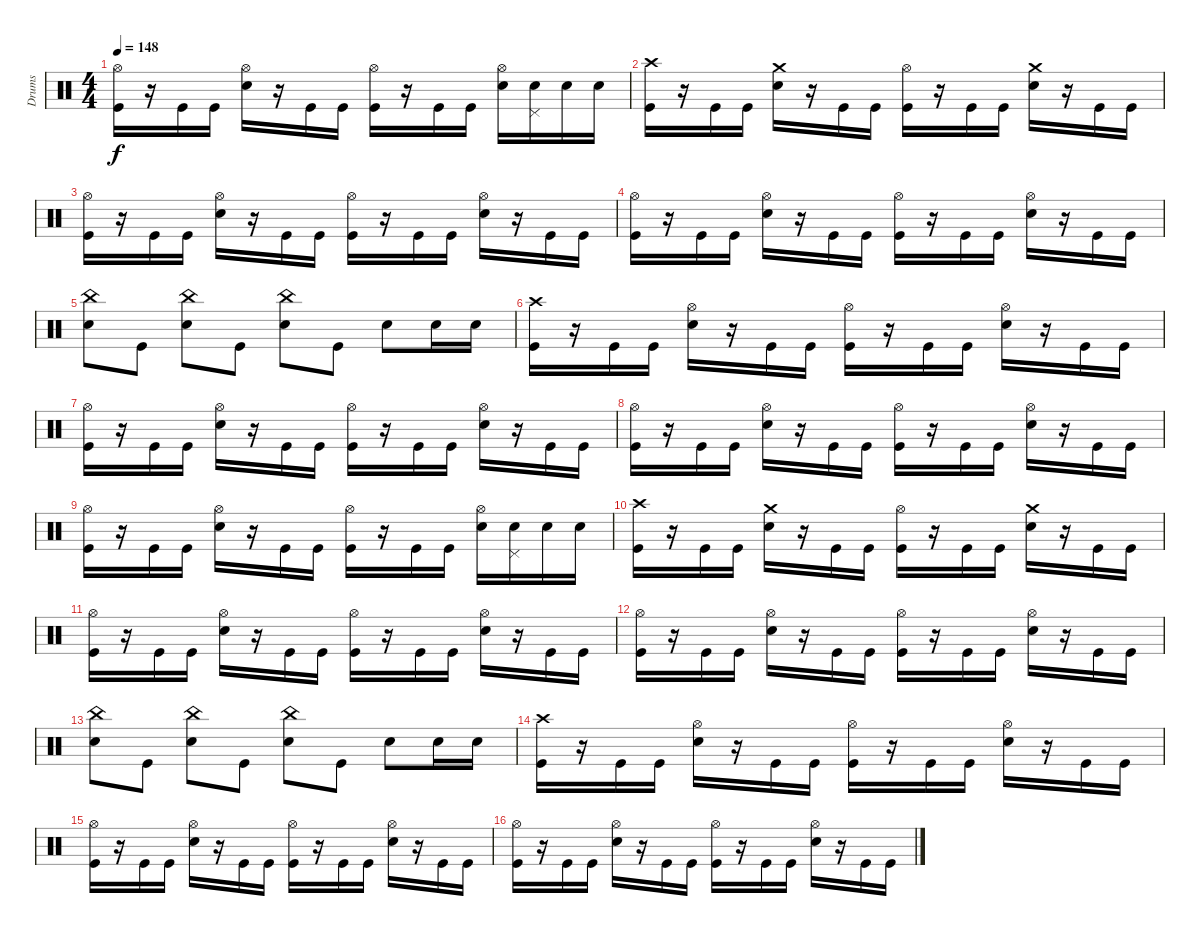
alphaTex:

\track ("Drums" "Drums") {instrument percussion}
\staff {score}
\articulation defaults
\ts (4 4)
\tempo 148
\clef neutral
\ks c
("Hi-Hat (open)" "Kick (hit)").16{dy f} r.16 "Kick (hit)".16 "Kick (hit)".16 ("Hi-Hat (open)" "Electric Snare (hit)").16 r.16 "Kick (hit)".16 "Kick (hit)".16 ("Hi-Hat (open)" "Kick (hit)").16 r.16 "Kick (hit)".16 "Kick (hit)".16 ("Hi-Hat (open)" "Electric Snare (hit)").16 ("Pedal Hi-Hat (hit)" "Electric Snare (hit)").16 "Electric Snare (hit)".16 "Electric Snare (hit)".16 |
("Crash high (hit)" "Kick (hit)").16 r.16 "Kick (hit)".16 "Kick (hit)".16 ("Crash medium (hit)" "Electric Snare (hit)").16 r.16 "Kick (hit)".16 "Kick (hit)".16 ("Hi-Hat (open)" "Kick (hit)").16 r.16 "Kick (hit)".16 "Kick (hit)".16 ("Crash medium (hit)" "Electric Snare (hit)").16 r.16 "Kick (hit)".16 "Kick (hit)".16 |
("Hi-Hat (open)" "Kick (hit)").16 r.16 "Kick (hit)".16 "Kick (hit)".16 ("Hi-Hat (open)" "Electric Snare (hit)").16 r.16 "Kick (hit)".16 "Kick (hit)".16 ("Hi-Hat (open)" "Kick (hit)").16 r.16 "Kick (hit)".16 "Kick (hit)".16 ("Hi-Hat (open)" "Electric Snare (hit)").16 r.16 "Kick (hit)".16 "Kick (hit)".16 |
("Hi-Hat (open)" "Kick (hit)").16 r.16 "Kick (hit)".16 "Kick (hit)".16 ("Hi-Hat (open)" "Electric Snare (hit)").16 r.16 "Kick (hit)".16 "Kick (hit)".16 ("Hi-Hat (open)" "Kick (hit)").16 r.16 "Kick (hit)".16 "Kick (hit)".16 ("Hi-Hat (open)" "Electric Snare (hit)").16 r.16 "Kick (hit)".16 "Kick (hit)".16 |
("China (hit)" "Electric Snare (hit)").8 "Kick (hit)".8 ("China (hit)" "Electric Snare (hit)").8 "Kick (hit)".8 ("China (hit)" "Electric Snare (hit)").8 "Kick (hit)".8 "Electric Snare (hit)".8 "Electric Snare (hit)".16 "Electric Snare (hit)".16 |
("Crash high (hit)" "Kick (hit)").16 r.16 "Kick (hit)".16 "Kick (hit)".16 ("Hi-Hat (open)" "Electric Snare (hit)").16 r.16 "Kick (hit)".16 "Kick (hit)".16 ("Hi-Hat (open)" "Kick (hit)").16 r.16 "Kick (hit)".16 "Kick (hit)".16 ("Hi-Hat (open)" "Electric Snare (hit)").16 r.16 "Kick (hit)".16 "Kick (hit)".16 |
("Hi-Hat (open)" "Kick (hit)").16 r.16 "Kick (hit)".16 "Kick (hit)".16 ("Hi-Hat (open)" "Electric Snare (hit)").16 r.16 "Kick (hit)".16 "Kick (hit)".16 ("Hi-Hat (open)" "Kick (hit)").16 r.16 "Kick (hit)".16 "Kick (hit)".16 ("Hi-Hat (open)" "Electric Snare (hit)").16 r.16 "Kick (hit)".16 "Kick (hit)".16 |
("Hi-Hat (open)" "Kick (hit)").16 r.16 "Kick (hit)".16 "Kick (hit)".16 ("Hi-Hat (open)" "Electric Snare (hit)").16 r.16 "Kick (hit)".16 "Kick (hit)".16 ("Hi-Hat (open)" "Kick (hit)").16 r.16 "Kick (hit)".16 "Kick (hit)".16 ("Hi-Hat (open)" "Electric Snare (hit)").16 r.16 "Kick (hit)".16 "Kick (hit)".16 |
("Hi-Hat (open)" "Kick (hit)").16 r.16 "Kick (hit)".16 "Kick (hit)".16 ("Hi-Hat (open)" "Electric Snare (hit)").16 r.16 "Kick (hit)".16 "Kick (hit)".16 ("Hi-Hat (open)" "Kick (hit)").16 r.16 "Kick (hit)".16 "Kick (hit)".16 ("Hi-Hat (open)" "Electric Snare (hit)").16 ("Pedal Hi-Hat (hit)" "Electric Snare (hit)").16 "Electric Snare (hit)".16 "Electric Snare (hit)".16 |
("Crash high (hit)" "Kick (hit)").16 r.16 "Kick (hit)".16 "Kick (hit)".16 ("Crash medium (hit)" "Electric Snare (hit)").16 r.16 "Kick (hit)".16 "Kick (hit)".16 ("Hi-Hat (open)" "Kick (hit)").16 r.16 "Kick (hit)".16 "Kick (hit)".16 ("Crash medium (hit)" "Electric Snare (hit)").16 r.16 "Kick (hit)".16 "Kick (hit)".16 |
("Hi-Hat (open)" "Kick (hit)").16 r.16 "Kick (hit)".16 "Kick (hit)".16 ("Hi-Hat (open)" "Electric Snare (hit)").16 r.16 "Kick (hit)".16 "Kick (hit)".16 ("Hi-Hat (open)" "Kick (hit)").16 r.16 "Kick (hit)".16 "Kick (hit)".16 ("Hi-Hat (open)" "Electric Snare (hit)").16 r.16 "Kick (hit)".16 "Kick (hit)".16 |
("Hi-Hat (open)" "Kick (hit)").16 r.16 "Kick (hit)".16 "Kick (hit)".16 ("Hi-Hat (open)" "Electric Snare (hit)").16 r.16 "Kick (hit)".16 "Kick (hit)".16 ("Hi-Hat (open)" "Kick (hit)").16 r.16 "Kick (hit)".16 "Kick (hit)".16 ("Hi-Hat (open)" "Electric Snare (hit)").16 r.16 "Kick (hit)".16 "Kick (hit)".16 |
("China (hit)" "Electric Snare (hit)").8 "Kick (hit)".8 ("China (hit)" "Electric Snare (hit)").8 "Kick (hit)".8 ("China (hit)" "Electric Snare (hit)").8 "Kick (hit)".8 "Electric Snare (hit)".8 "Electric Snare (hit)".16 "Electric Snare (hit)".16 |
("Crash high (hit)" "Kick (hit)").16 r.16 "Kick (hit)".16 "Kick (hit)".16 ("Hi-Hat (open)" "Electric Snare (hit)").16 r.16 "Kick (hit)".16 "Kick (hit)".16 ("Hi-Hat (open)" "Kick (hit)").16 r.16 "Kick (hit)".16 "Kick (hit)".16 ("Hi-Hat (open)" "Electric Snare (hit)").16 r.16 "Kick (hit)".16 "Kick (hit)".16 |
("Hi-Hat (open)" "Kick (hit)").16 r.16 "Kick (hit)".16 "Kick (hit)".16 ("Hi-Hat (open)" "Electric Snare (hit)").16 r.16 "Kick (hit)".16 "Kick (hit)".16 ("Hi-Hat (open)" "Kick (hit)").16 r.16 "Kick (hit)".16 "Kick (hit)".16 ("Hi-Hat (open)" "Electric Snare (hit)").16 r.16 "Kick (hit)".16 "Kick (hit)".16 |
("Hi-Hat (open)" "Kick (hit)").16 r.16 "Kick (hit)".16 "Kick (hit)".16 ("Hi-Hat (open)" "Electric Snare (hit)").16 r.16 "Kick (hit)".16 "Kick (hit)".16 ("Hi-Hat (open)" "Kick (hit)").16 r.16 "Kick (hit)".16 "Kick (hit)".16 ("Hi-Hat (open)" "Electric Snare (hit)").16 r.16 "Kick (hit)".16 "Kick (hit)".16
